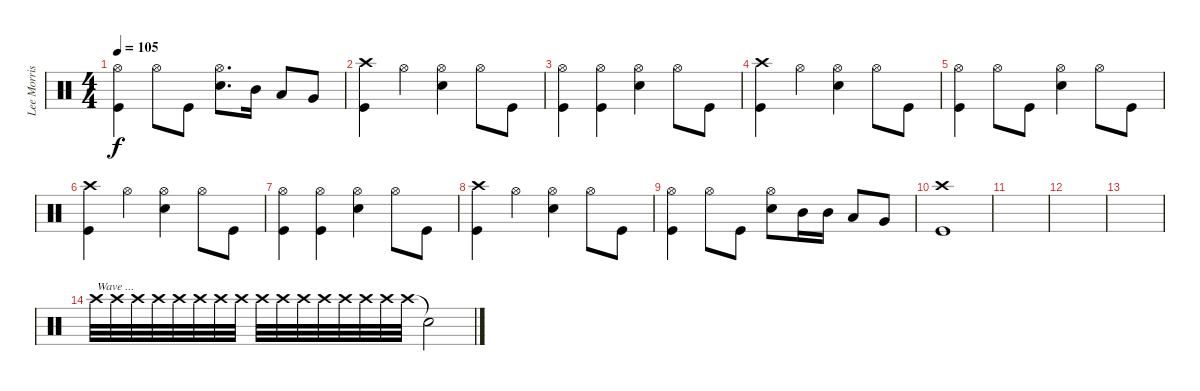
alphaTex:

\track ("Lee Morris" "Lee Morris") {instrument percussion}
\staff {score}
\articulation defaults
\ts (4 4)
\tempo 105
\clef neutral
\ks c
("Kick (hit)" "Hi-Hat (open)").4{dy f} "Hi-Hat (open)".8 "Kick (hit)".8 ("Snare (hit) 2" "Hi-Hat (open)").8{d} "Mid Tom (hit)".16 "Low Tom (hit)".8 "Very Low Tom (hit)".8 |
("Kick (hit)" "Crash high (hit)").4 "Hi-Hat (open)".4 ("Snare (hit) 2" "Hi-Hat (open)").4 "Hi-Hat (open)".8 "Kick (hit)".8 |
("Kick (hit)" "Hi-Hat (open)").4 ("Kick (hit)" "Hi-Hat (open)").4 ("Snare (hit) 2" "Hi-Hat (open)").4 "Hi-Hat (open)".8 "Kick (hit)".8 |
("Kick (hit)" "Crash high (hit)").4 "Hi-Hat (open)".4 ("Snare (hit) 2" "Hi-Hat (open)").4 "Hi-Hat (open)".8 "Kick (hit)".8 |
("Kick (hit)" "Hi-Hat (open)").4 "Hi-Hat (open)".8 "Kick (hit)".8 ("Snare (hit) 2" "Hi-Hat (open)").4 "Hi-Hat (open)".8 "Kick (hit)".8 |
("Kick (hit)" "Crash high (hit)").4 "Hi-Hat (open)".4 ("Snare (hit) 2" "Hi-Hat (open)").4 "Hi-Hat (open)".8 "Kick (hit)".8 |
("Kick (hit)" "Hi-Hat (open)").4 ("Kick (hit)" "Hi-Hat (open)").4 ("Snare (hit) 2" "Hi-Hat (open)").4 "Hi-Hat (open)".8 "Kick (hit)".8 |
("Kick (hit)" "Crash high (hit)").4 "Hi-Hat (open)".4 ("Snare (hit) 2" "Hi-Hat (open)").4 "Hi-Hat (open)".8 "Kick (hit)".8 |
("Kick (hit)" "Hi-Hat (open)").4 "Hi-Hat (open)".8 "Kick (hit)".8 ("Snare (hit) 2" "Hi-Hat (open)").8 "Mid Tom (hit)".16 "Mid Tom (hit)".16 "Low Tom (hit)".8 "Very Low Tom (hit)".8 |
("Kick (hit)" "Crash high (hit)").1 |
|
|
|
"Crash high (hit)".32{txt "Wave ..."} "Crash high (hit)".32 "Crash high (hit)".32 "Crash high (hit)".32 "Crash high (hit)".32 "Crash high (hit)".32 "Crash high (hit)".32 "Crash high (hit)".32 "Crash high (hit)".32 "Crash high (hit)".32 "Crash high (hit)".32 "Crash high (hit)".32 "Crash high (hit)".32 "Crash high (hit)".32 "Crash high (hit)".32 "Crash high (hit)".32 "Snare (hit)"{t}.2
